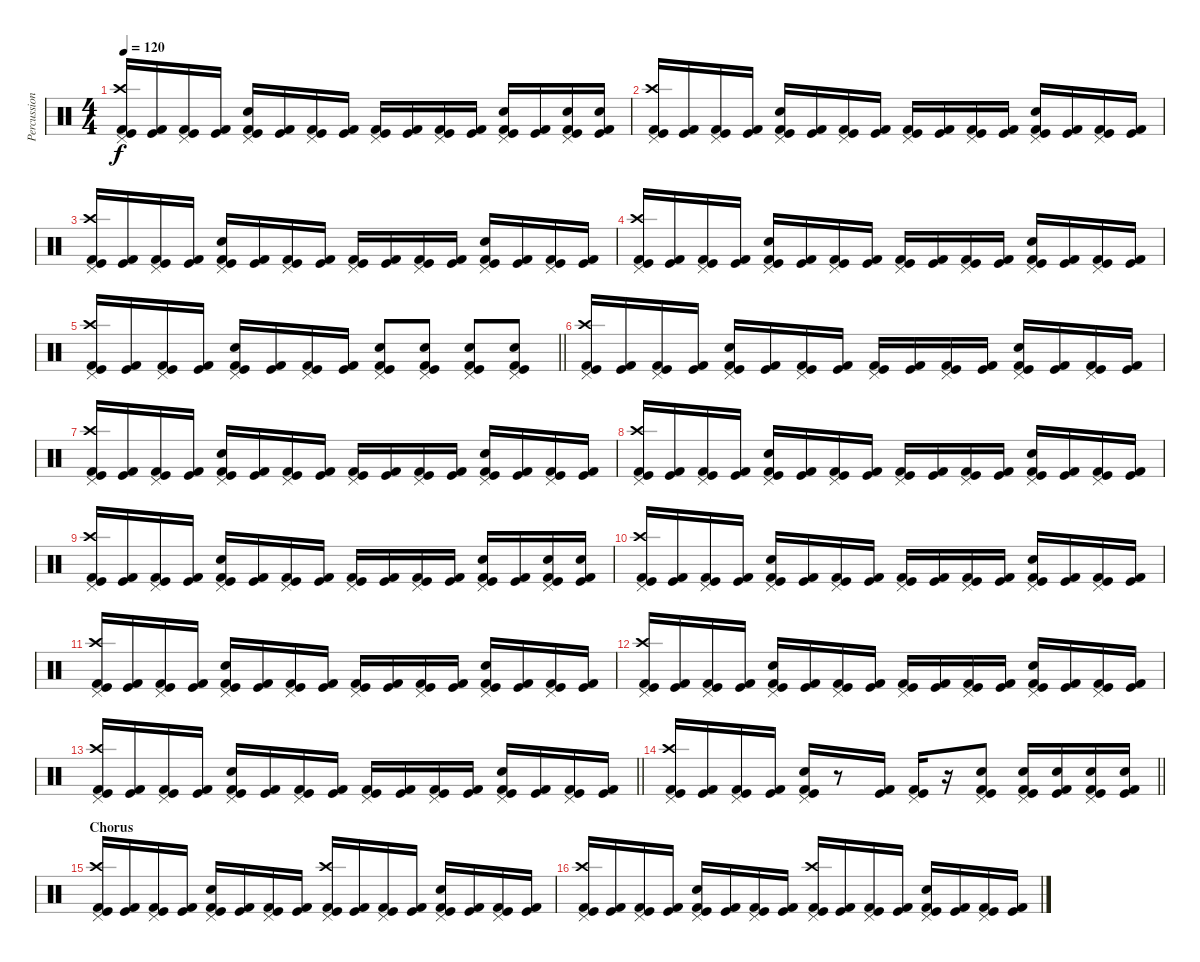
\track ("Percussion" "Percussion") {instrument percussion}
\staff {score}
\articulation defaults
\ts (4 4)
\tempo 120
\clef neutral
\ks c
("Pedal Hi-Hat (hit)" "Crash high (hit)" "Kick (hit)" "Kick (hit) 2").16{dy f} ("Kick (hit)" "Kick (hit) 2").16 ("Pedal Hi-Hat (hit)" "Kick (hit)" "Kick (hit) 2").16 ("Kick (hit)" "Kick (hit) 2").16 ("Pedal Hi-Hat (hit)" "Electric Snare (hit)" "Kick (hit)" "Kick (hit) 2").16 ("Kick (hit)" "Kick (hit) 2").16 ("Pedal Hi-Hat (hit)" "Kick (hit)" "Kick (hit) 2").16 ("Kick (hit)" "Kick (hit) 2").16 ("Pedal Hi-Hat (hit)" "Kick (hit)" "Kick (hit) 2").16 ("Kick (hit)" "Kick (hit) 2").16 ("Pedal Hi-Hat (hit)" "Kick (hit)" "Kick (hit) 2").16 ("Kick (hit)" "Kick (hit) 2").16 ("Pedal Hi-Hat (hit)" "Electric Snare (hit)" "Kick (hit)" "Kick (hit) 2").16 ("Kick (hit)" "Kick (hit) 2").16 ("Pedal Hi-Hat (hit)" "Electric Snare (hit)" "Kick (hit)" "Kick (hit) 2").16 ("Electric Snare (hit)" "Kick (hit)" "Kick (hit) 2").16 |
("Pedal Hi-Hat (hit)" "Crash high (hit)" "Kick (hit)" "Kick (hit) 2").16 ("Kick (hit)" "Kick (hit) 2").16 ("Pedal Hi-Hat (hit)" "Kick (hit)" "Kick (hit) 2").16 ("Kick (hit)" "Kick (hit) 2").16 ("Pedal Hi-Hat (hit)" "Electric Snare (hit)" "Kick (hit)" "Kick (hit) 2").16 ("Kick (hit)" "Kick (hit) 2").16 ("Pedal Hi-Hat (hit)" "Kick (hit)" "Kick (hit) 2").16 ("Kick (hit)" "Kick (hit) 2").16 ("Pedal Hi-Hat (hit)" "Kick (hit)" "Kick (hit) 2").16 ("Kick (hit)" "Kick (hit) 2").16 ("Pedal Hi-Hat (hit)" "Kick (hit)" "Kick (hit) 2").16 ("Kick (hit)" "Kick (hit) 2").16 ("Pedal Hi-Hat (hit)" "Electric Snare (hit)" "Kick (hit)" "Kick (hit) 2").16 ("Kick (hit)" "Kick (hit) 2").16 ("Pedal Hi-Hat (hit)" "Kick (hit)" "Kick (hit) 2").16 ("Kick (hit)" "Kick (hit) 2").16 |
("Pedal Hi-Hat (hit)" "Crash high (hit)" "Kick (hit)" "Kick (hit) 2").16 ("Kick (hit)" "Kick (hit) 2").16 ("Pedal Hi-Hat (hit)" "Kick (hit)" "Kick (hit) 2").16 ("Kick (hit)" "Kick (hit) 2").16 ("Pedal Hi-Hat (hit)" "Electric Snare (hit)" "Kick (hit)" "Kick (hit) 2").16 ("Kick (hit)" "Kick (hit) 2").16 ("Pedal Hi-Hat (hit)" "Kick (hit)" "Kick (hit) 2").16 ("Kick (hit)" "Kick (hit) 2").16 ("Pedal Hi-Hat (hit)" "Kick (hit)" "Kick (hit) 2").16 ("Kick (hit)" "Kick (hit) 2").16 ("Pedal Hi-Hat (hit)" "Kick (hit)" "Kick (hit) 2").16 ("Kick (hit)" "Kick (hit) 2").16 ("Pedal Hi-Hat (hit)" "Electric Snare (hit)" "Kick (hit)" "Kick (hit) 2").16 ("Kick (hit)" "Kick (hit) 2").16 ("Pedal Hi-Hat (hit)" "Kick (hit)" "Kick (hit) 2").16 ("Kick (hit)" "Kick (hit) 2").16 |
("Pedal Hi-Hat (hit)" "Crash high (hit)" "Kick (hit)" "Kick (hit) 2").16 ("Kick (hit)" "Kick (hit) 2").16 ("Pedal Hi-Hat (hit)" "Kick (hit)" "Kick (hit) 2").16 ("Kick (hit)" "Kick (hit) 2").16 ("Pedal Hi-Hat (hit)" "Electric Snare (hit)" "Kick (hit)" "Kick (hit) 2").16 ("Kick (hit)" "Kick (hit) 2").16 ("Pedal Hi-Hat (hit)" "Kick (hit)" "Kick (hit) 2").16 ("Kick (hit)" "Kick (hit) 2").16 ("Pedal Hi-Hat (hit)" "Kick (hit)" "Kick (hit) 2").16 ("Kick (hit)" "Kick (hit) 2").16 ("Pedal Hi-Hat (hit)" "Kick (hit)" "Kick (hit) 2").16 ("Kick (hit)" "Kick (hit) 2").16 ("Pedal Hi-Hat (hit)" "Electric Snare (hit)" "Kick (hit)" "Kick (hit) 2").16 ("Kick (hit)" "Kick (hit) 2").16 ("Pedal Hi-Hat (hit)" "Kick (hit)" "Kick (hit) 2").16 ("Kick (hit)" "Kick (hit) 2").16 |
\barLineRight lightlight
("Pedal Hi-Hat (hit)" "Crash high (hit)" "Kick (hit)" "Kick (hit) 2").16 ("Kick (hit)" "Kick (hit) 2").16 ("Pedal Hi-Hat (hit)" "Kick (hit)" "Kick (hit) 2").16 ("Kick (hit)" "Kick (hit) 2").16 ("Pedal Hi-Hat (hit)" "Electric Snare (hit)" "Kick (hit)" "Kick (hit) 2").16 ("Kick (hit)" "Kick (hit) 2").16 ("Pedal Hi-Hat (hit)" "Kick (hit)" "Kick (hit) 2").16 ("Kick (hit)" "Kick (hit) 2").16 ("Pedal Hi-Hat (hit)" "Electric Snare (hit)" "Kick (hit)" "Kick (hit) 2").8 ("Pedal Hi-Hat (hit)" "Electric Snare (hit)" "Kick (hit)" "Kick (hit) 2").8 ("Pedal Hi-Hat (hit)" "Electric Snare (hit)" "Kick (hit)" "Kick (hit) 2").8 ("Pedal Hi-Hat (hit)" "Electric Snare (hit)" "Kick (hit)" "Kick (hit) 2").8 |
("Pedal Hi-Hat (hit)" "Crash high (hit)" "Kick (hit)" "Kick (hit) 2").16 ("Kick (hit)" "Kick (hit) 2").16 ("Pedal Hi-Hat (hit)" "Kick (hit)" "Kick (hit) 2").16 ("Kick (hit)" "Kick (hit) 2").16 ("Pedal Hi-Hat (hit)" "Electric Snare (hit)" "Kick (hit)" "Kick (hit) 2").16 ("Kick (hit)" "Kick (hit) 2").16 ("Pedal Hi-Hat (hit)" "Kick (hit)" "Kick (hit) 2").16 ("Kick (hit)" "Kick (hit) 2").16 ("Pedal Hi-Hat (hit)" "Kick (hit)" "Kick (hit) 2").16 ("Kick (hit)" "Kick (hit) 2").16 ("Pedal Hi-Hat (hit)" "Kick (hit)" "Kick (hit) 2").16 ("Kick (hit)" "Kick (hit) 2").16 ("Pedal Hi-Hat (hit)" "Electric Snare (hit)" "Kick (hit)" "Kick (hit) 2").16 ("Kick (hit)" "Kick (hit) 2").16 ("Pedal Hi-Hat (hit)" "Kick (hit)" "Kick (hit) 2").16 ("Kick (hit)" "Kick (hit) 2").16 |
("Pedal Hi-Hat (hit)" "Crash high (hit)" "Kick (hit)" "Kick (hit) 2").16 ("Kick (hit)" "Kick (hit) 2").16 ("Pedal Hi-Hat (hit)" "Kick (hit)" "Kick (hit) 2").16 ("Kick (hit)" "Kick (hit) 2").16 ("Pedal Hi-Hat (hit)" "Electric Snare (hit)" "Kick (hit)" "Kick (hit) 2").16 ("Kick (hit)" "Kick (hit) 2").16 ("Pedal Hi-Hat (hit)" "Kick (hit)" "Kick (hit) 2").16 ("Kick (hit)" "Kick (hit) 2").16 ("Pedal Hi-Hat (hit)" "Kick (hit)" "Kick (hit) 2").16 ("Kick (hit)" "Kick (hit) 2").16 ("Pedal Hi-Hat (hit)" "Kick (hit)" "Kick (hit) 2").16 ("Kick (hit)" "Kick (hit) 2").16 ("Pedal Hi-Hat (hit)" "Electric Snare (hit)" "Kick (hit)" "Kick (hit) 2").16 ("Kick (hit)" "Kick (hit) 2").16 ("Pedal Hi-Hat (hit)" "Kick (hit)" "Kick (hit) 2").16 ("Kick (hit)" "Kick (hit) 2").16 |
("Pedal Hi-Hat (hit)" "Crash high (hit)" "Kick (hit)" "Kick (hit) 2").16 ("Kick (hit)" "Kick (hit) 2").16 ("Pedal Hi-Hat (hit)" "Kick (hit)" "Kick (hit) 2").16 ("Kick (hit)" "Kick (hit) 2").16 ("Pedal Hi-Hat (hit)" "Electric Snare (hit)" "Kick (hit)" "Kick (hit) 2").16 ("Kick (hit)" "Kick (hit) 2").16 ("Pedal Hi-Hat (hit)" "Kick (hit)" "Kick (hit) 2").16 ("Kick (hit)" "Kick (hit) 2").16 ("Pedal Hi-Hat (hit)" "Kick (hit)" "Kick (hit) 2").16 ("Kick (hit)" "Kick (hit) 2").16 ("Pedal Hi-Hat (hit)" "Kick (hit)" "Kick (hit) 2").16 ("Kick (hit)" "Kick (hit) 2").16 ("Pedal Hi-Hat (hit)" "Electric Snare (hit)" "Kick (hit)" "Kick (hit) 2").16 ("Kick (hit)" "Kick (hit) 2").16 ("Pedal Hi-Hat (hit)" "Kick (hit)" "Kick (hit) 2").16 ("Kick (hit)" "Kick (hit) 2").16 |
("Pedal Hi-Hat (hit)" "Crash high (hit)" "Kick (hit)" "Kick (hit) 2").16 ("Kick (hit)" "Kick (hit) 2").16 ("Pedal Hi-Hat (hit)" "Kick (hit)" "Kick (hit) 2").16 ("Kick (hit)" "Kick (hit) 2").16 ("Pedal Hi-Hat (hit)" "Electric Snare (hit)" "Kick (hit)" "Kick (hit) 2").16 ("Kick (hit)" "Kick (hit) 2").16 ("Pedal Hi-Hat (hit)" "Kick (hit)" "Kick (hit) 2").16 ("Kick (hit)" "Kick (hit) 2").16 ("Pedal Hi-Hat (hit)" "Kick (hit)" "Kick (hit) 2").16 ("Kick (hit)" "Kick (hit) 2").16 ("Pedal Hi-Hat (hit)" "Kick (hit)" "Kick (hit) 2").16 ("Kick (hit)" "Kick (hit) 2").16 ("Pedal Hi-Hat (hit)" "Electric Snare (hit)" "Kick (hit)" "Kick (hit) 2").16 ("Kick (hit)" "Kick (hit) 2").16 ("Pedal Hi-Hat (hit)" "Electric Snare (hit)" "Kick (hit)" "Kick (hit) 2").16 ("Electric Snare (hit)" "Kick (hit)" "Kick (hit) 2").16 |
("Pedal Hi-Hat (hit)" "Crash high (hit)" "Kick (hit)" "Kick (hit) 2").16 ("Kick (hit)" "Kick (hit) 2").16 ("Pedal Hi-Hat (hit)" "Kick (hit)" "Kick (hit) 2").16 ("Kick (hit)" "Kick (hit) 2").16 ("Pedal Hi-Hat (hit)" "Electric Snare (hit)" "Kick (hit)" "Kick (hit) 2").16 ("Kick (hit)" "Kick (hit) 2").16 ("Pedal Hi-Hat (hit)" "Kick (hit)" "Kick (hit) 2").16 ("Kick (hit)" "Kick (hit) 2").16 ("Pedal Hi-Hat (hit)" "Kick (hit)" "Kick (hit) 2").16 ("Kick (hit)" "Kick (hit) 2").16 ("Pedal Hi-Hat (hit)" "Kick (hit)" "Kick (hit) 2").16 ("Kick (hit)" "Kick (hit) 2").16 ("Pedal Hi-Hat (hit)" "Electric Snare (hit)" "Kick (hit)" "Kick (hit) 2").16 ("Kick (hit)" "Kick (hit) 2").16 ("Pedal Hi-Hat (hit)" "Kick (hit)" "Kick (hit) 2").16 ("Kick (hit)" "Kick (hit) 2").16 |
("Pedal Hi-Hat (hit)" "Crash high (hit)" "Kick (hit)" "Kick (hit) 2").16 ("Kick (hit)" "Kick (hit) 2").16 ("Pedal Hi-Hat (hit)" "Kick (hit)" "Kick (hit) 2").16 ("Kick (hit)" "Kick (hit) 2").16 ("Pedal Hi-Hat (hit)" "Electric Snare (hit)" "Kick (hit)" "Kick (hit) 2").16 ("Kick (hit)" "Kick (hit) 2").16 ("Pedal Hi-Hat (hit)" "Kick (hit)" "Kick (hit) 2").16 ("Kick (hit)" "Kick (hit) 2").16 ("Pedal Hi-Hat (hit)" "Kick (hit)" "Kick (hit) 2").16 ("Kick (hit)" "Kick (hit) 2").16 ("Pedal Hi-Hat (hit)" "Kick (hit)" "Kick (hit) 2").16 ("Kick (hit)" "Kick (hit) 2").16 ("Pedal Hi-Hat (hit)" "Electric Snare (hit)" "Kick (hit)" "Kick (hit) 2").16 ("Kick (hit)" "Kick (hit) 2").16 ("Pedal Hi-Hat (hit)" "Kick (hit)" "Kick (hit) 2").16 ("Kick (hit)" "Kick (hit) 2").16 |
("Pedal Hi-Hat (hit)" "Crash high (hit)" "Kick (hit)" "Kick (hit) 2").16 ("Kick (hit)" "Kick (hit) 2").16 ("Pedal Hi-Hat (hit)" "Kick (hit)" "Kick (hit) 2").16 ("Kick (hit)" "Kick (hit) 2").16 ("Pedal Hi-Hat (hit)" "Electric Snare (hit)" "Kick (hit)" "Kick (hit) 2").16 ("Kick (hit)" "Kick (hit) 2").16 ("Pedal Hi-Hat (hit)" "Kick (hit)" "Kick (hit) 2").16 ("Kick (hit)" "Kick (hit) 2").16 ("Pedal Hi-Hat (hit)" "Kick (hit)" "Kick (hit) 2").16 ("Kick (hit)" "Kick (hit) 2").16 ("Pedal Hi-Hat (hit)" "Kick (hit)" "Kick (hit) 2").16 ("Kick (hit)" "Kick (hit) 2").16 ("Pedal Hi-Hat (hit)" "Electric Snare (hit)" "Kick (hit)" "Kick (hit) 2").16 ("Kick (hit)" "Kick (hit) 2").16 ("Pedal Hi-Hat (hit)" "Kick (hit)" "Kick (hit) 2").16 ("Kick (hit)" "Kick (hit) 2").16 |
\barLineRight lightlight
("Pedal Hi-Hat (hit)" "Crash high (hit)" "Kick (hit)" "Kick (hit) 2").16 ("Kick (hit)" "Kick (hit) 2").16 ("Pedal Hi-Hat (hit)" "Kick (hit)" "Kick (hit) 2").16 ("Kick (hit)" "Kick (hit) 2").16 ("Pedal Hi-Hat (hit)" "Electric Snare (hit)" "Kick (hit)" "Kick (hit) 2").16 ("Kick (hit)" "Kick (hit) 2").16 ("Pedal Hi-Hat (hit)" "Kick (hit)" "Kick (hit) 2").16 ("Kick (hit)" "Kick (hit) 2").16 ("Pedal Hi-Hat (hit)" "Kick (hit)" "Kick (hit) 2").16 ("Kick (hit)" "Kick (hit) 2").16 ("Pedal Hi-Hat (hit)" "Kick (hit)" "Kick (hit) 2").16 ("Kick (hit)" "Kick (hit) 2").16 ("Pedal Hi-Hat (hit)" "Electric Snare (hit)" "Kick (hit)" "Kick (hit) 2").16 ("Kick (hit)" "Kick (hit) 2").16 ("Pedal Hi-Hat (hit)" "Kick (hit)" "Kick (hit) 2").16 ("Kick (hit)" "Kick (hit) 2").16 |
\barLineRight lightlight
("Pedal Hi-Hat (hit)" "Crash high (hit)" "Kick (hit)" "Kick (hit) 2").16 ("Kick (hit)" "Kick (hit) 2").16 ("Pedal Hi-Hat (hit)" "Kick (hit)" "Kick (hit) 2").16 ("Kick (hit)" "Kick (hit) 2").16 ("Pedal Hi-Hat (hit)" "Electric Snare (hit)" "Kick (hit)" "Kick (hit) 2").16 r.8 ("Kick (hit)" "Kick (hit) 2").16 ("Pedal Hi-Hat (hit)" "Kick (hit)" "Kick (hit) 2").16 r.16 ("Pedal Hi-Hat (hit)" "Electric Snare (hit)" "Kick (hit)" "Kick (hit) 2").8 ("Pedal Hi-Hat (hit)" "Electric Snare (hit)" "Kick (hit)" "Kick (hit) 2").16 ("Electric Snare (hit)" "Kick (hit)" "Kick (hit) 2").16 ("Pedal Hi-Hat (hit)" "Electric Snare (hit)" "Kick (hit)" "Kick (hit) 2").16 ("Electric Snare (hit)" "Kick (hit)" "Kick (hit) 2").16 |
\section ("" "Chorus")
("Pedal Hi-Hat (hit)" "Crash high (hit)" "Kick (hit)" "Kick (hit) 2").16 ("Kick (hit)" "Kick (hit) 2").16 ("Pedal Hi-Hat (hit)" "Kick (hit)" "Kick (hit) 2").16 ("Kick (hit)" "Kick (hit) 2").16 ("Pedal Hi-Hat (hit)" "Electric Snare (hit)" "Kick (hit)" "Kick (hit) 2").16 ("Kick (hit)" "Kick (hit) 2").16 ("Pedal Hi-Hat (hit)" "Kick (hit)" "Kick (hit) 2").16 ("Kick (hit)" "Kick (hit) 2").16 ("Pedal Hi-Hat (hit)" "Crash high (hit)" "Kick (hit)" "Kick (hit) 2").16 ("Kick (hit)" "Kick (hit) 2").16 ("Pedal Hi-Hat (hit)" "Kick (hit)" "Kick (hit) 2").16 ("Kick (hit)" "Kick (hit) 2").16 ("Pedal Hi-Hat (hit)" "Electric Snare (hit)" "Kick (hit)" "Kick (hit) 2").16 ("Kick (hit)" "Kick (hit) 2").16 ("Pedal Hi-Hat (hit)" "Kick (hit)" "Kick (hit) 2").16 ("Kick (hit)" "Kick (hit) 2").16 |
("Pedal Hi-Hat (hit)" "Crash high (hit)" "Kick (hit)" "Kick (hit) 2").16 ("Kick (hit)" "Kick (hit) 2").16 ("Pedal Hi-Hat (hit)" "Kick (hit)" "Kick (hit) 2").16 ("Kick (hit)" "Kick (hit) 2").16 ("Pedal Hi-Hat (hit)" "Electric Snare (hit)" "Kick (hit)" "Kick (hit) 2").16 ("Kick (hit)" "Kick (hit) 2").16 ("Pedal Hi-Hat (hit)" "Kick (hit)" "Kick (hit) 2").16 ("Kick (hit)" "Kick (hit) 2").16 ("Pedal Hi-Hat (hit)" "Crash high (hit)" "Kick (hit)" "Kick (hit) 2").16 ("Kick (hit)" "Kick (hit) 2").16 ("Pedal Hi-Hat (hit)" "Kick (hit)" "Kick (hit) 2").16 ("Kick (hit)" "Kick (hit) 2").16 ("Pedal Hi-Hat (hit)" "Electric Snare (hit)" "Kick (hit)" "Kick (hit) 2").16 ("Kick (hit)" "Kick (hit) 2").16 ("Pedal Hi-Hat (hit)" "Kick (hit)" "Kick (hit) 2").16 ("Kick (hit)" "Kick (hit) 2").16
